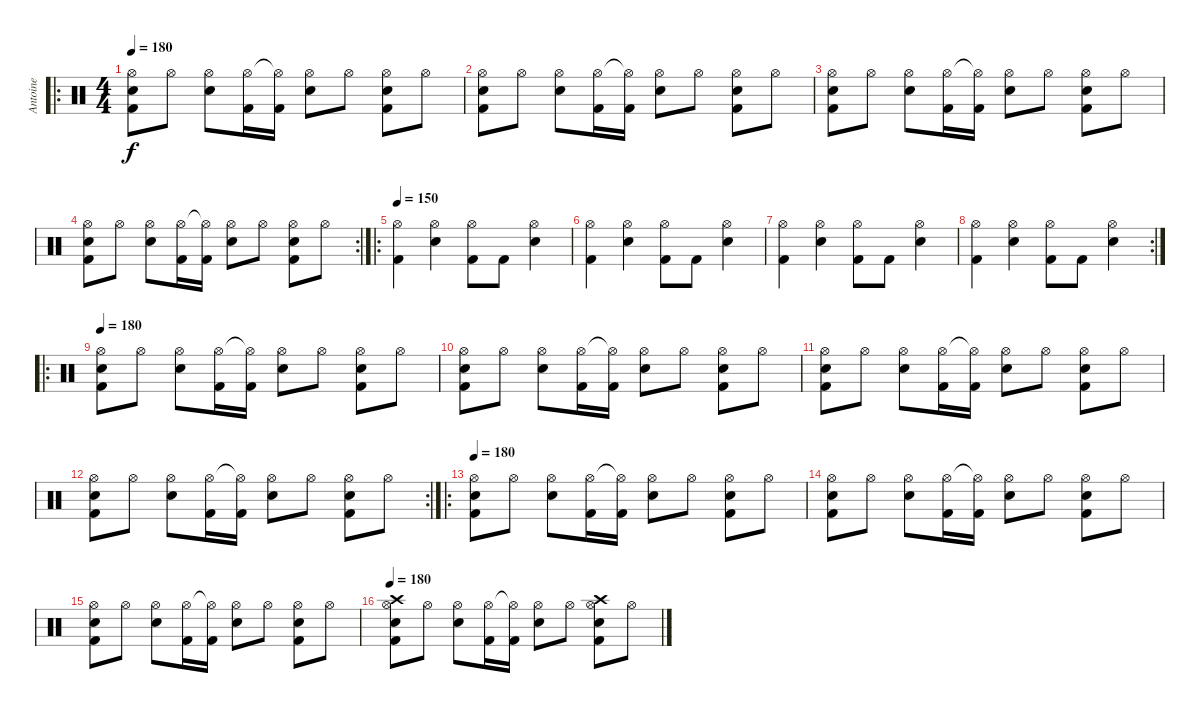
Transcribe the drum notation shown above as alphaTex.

\track ("Antoine" "Antoine") {instrument percussion}
\staff {score}
\articulation defaults
\ro
\ts (4 4)
\tempo 180
\clef neutral
\ks c
("Hi-Hat (open)" "Electric Snare (hit)" "Kick (hit) 2").8{dy f} "Hi-Hat (open)".8 ("Hi-Hat (open)" "Electric Snare (hit)").8 ("Hi-Hat (open)" "Kick (hit) 2").16 ("Hi-Hat (open)"{t} "Kick (hit) 2").16 ("Hi-Hat (open)" "Electric Snare (hit)").8 "Hi-Hat (open)".8 ("Hi-Hat (open)" "Electric Snare (hit)" "Kick (hit) 2").8 "Hi-Hat (open)".8 |
("Hi-Hat (open)" "Electric Snare (hit)" "Kick (hit) 2").8 "Hi-Hat (open)".8 ("Hi-Hat (open)" "Electric Snare (hit)").8 ("Hi-Hat (open)" "Kick (hit) 2").16 ("Hi-Hat (open)"{t} "Kick (hit) 2").16 ("Hi-Hat (open)" "Electric Snare (hit)").8 "Hi-Hat (open)".8 ("Hi-Hat (open)" "Electric Snare (hit)" "Kick (hit) 2").8 "Hi-Hat (open)".8 |
("Hi-Hat (open)" "Electric Snare (hit)" "Kick (hit) 2").8 "Hi-Hat (open)".8 ("Hi-Hat (open)" "Electric Snare (hit)").8 ("Hi-Hat (open)" "Kick (hit) 2").16 ("Hi-Hat (open)"{t} "Kick (hit) 2").16 ("Hi-Hat (open)" "Electric Snare (hit)").8 "Hi-Hat (open)".8 ("Hi-Hat (open)" "Electric Snare (hit)" "Kick (hit) 2").8 "Hi-Hat (open)".8 |
\rc 2
("Hi-Hat (open)" "Electric Snare (hit)" "Kick (hit) 2").8 "Hi-Hat (open)".8 ("Hi-Hat (open)" "Electric Snare (hit)").8 ("Hi-Hat (open)" "Kick (hit) 2").16 ("Hi-Hat (open)"{t} "Kick (hit) 2").16 ("Hi-Hat (open)" "Electric Snare (hit)").8 "Hi-Hat (open)".8 ("Hi-Hat (open)" "Electric Snare (hit)" "Kick (hit) 2").8 "Hi-Hat (open)".8 |
\ro
\tempo 150
("Hi-Hat (open)" "Kick (hit) 2").4 ("Hi-Hat (open)" "Electric Snare (hit)").4 ("Hi-Hat (open)" "Kick (hit) 2").8 "Kick (hit) 2".8 ("Hi-Hat (open)" "Electric Snare (hit)").4 |
("Hi-Hat (open)" "Kick (hit) 2").4 ("Hi-Hat (open)" "Electric Snare (hit)").4 ("Hi-Hat (open)" "Kick (hit) 2").8 "Kick (hit) 2".8 ("Hi-Hat (open)" "Electric Snare (hit)").4 |
("Hi-Hat (open)" "Kick (hit) 2").4 ("Hi-Hat (open)" "Electric Snare (hit)").4 ("Hi-Hat (open)" "Kick (hit) 2").8 "Kick (hit) 2".8 ("Hi-Hat (open)" "Electric Snare (hit)").4 |
\rc 2
("Hi-Hat (open)" "Kick (hit) 2").4 ("Hi-Hat (open)" "Electric Snare (hit)").4 ("Hi-Hat (open)" "Kick (hit) 2").8 "Kick (hit) 2".8 ("Hi-Hat (open)" "Electric Snare (hit)").4 |
\ro
\tempo 180
("Hi-Hat (open)" "Electric Snare (hit)" "Kick (hit) 2").8 "Hi-Hat (open)".8 ("Hi-Hat (open)" "Electric Snare (hit)").8 ("Hi-Hat (open)" "Kick (hit) 2").16 ("Hi-Hat (open)"{t} "Kick (hit) 2").16 ("Hi-Hat (open)" "Electric Snare (hit)").8 "Hi-Hat (open)".8 ("Hi-Hat (open)" "Electric Snare (hit)" "Kick (hit) 2").8 "Hi-Hat (open)".8 |
("Hi-Hat (open)" "Electric Snare (hit)" "Kick (hit) 2").8 "Hi-Hat (open)".8 ("Hi-Hat (open)" "Electric Snare (hit)").8 ("Hi-Hat (open)" "Kick (hit) 2").16 ("Hi-Hat (open)"{t} "Kick (hit) 2").16 ("Hi-Hat (open)" "Electric Snare (hit)").8 "Hi-Hat (open)".8 ("Hi-Hat (open)" "Electric Snare (hit)" "Kick (hit) 2").8 "Hi-Hat (open)".8 |
("Hi-Hat (open)" "Electric Snare (hit)" "Kick (hit) 2").8 "Hi-Hat (open)".8 ("Hi-Hat (open)" "Electric Snare (hit)").8 ("Hi-Hat (open)" "Kick (hit) 2").16 ("Hi-Hat (open)"{t} "Kick (hit) 2").16 ("Hi-Hat (open)" "Electric Snare (hit)").8 "Hi-Hat (open)".8 ("Hi-Hat (open)" "Electric Snare (hit)" "Kick (hit) 2").8 "Hi-Hat (open)".8 |
\rc 2
("Hi-Hat (open)" "Electric Snare (hit)" "Kick (hit) 2").8 "Hi-Hat (open)".8 ("Hi-Hat (open)" "Electric Snare (hit)").8 ("Hi-Hat (open)" "Kick (hit) 2").16 ("Hi-Hat (open)"{t} "Kick (hit) 2").16 ("Hi-Hat (open)" "Electric Snare (hit)").8 "Hi-Hat (open)".8 ("Hi-Hat (open)" "Electric Snare (hit)" "Kick (hit) 2").8 "Hi-Hat (open)".8 |
\ro
\tempo 180
("Hi-Hat (open)" "Electric Snare (hit)" "Kick (hit) 2").8 "Hi-Hat (open)".8 ("Hi-Hat (open)" "Electric Snare (hit)").8 ("Hi-Hat (open)" "Kick (hit) 2").16 ("Hi-Hat (open)"{t} "Kick (hit) 2").16 ("Hi-Hat (open)" "Electric Snare (hit)").8 "Hi-Hat (open)".8 ("Hi-Hat (open)" "Electric Snare (hit)" "Kick (hit) 2").8 "Hi-Hat (open)".8 |
("Hi-Hat (open)" "Electric Snare (hit)" "Kick (hit) 2").8 "Hi-Hat (open)".8 ("Hi-Hat (open)" "Electric Snare (hit)").8 ("Hi-Hat (open)" "Kick (hit) 2").16 ("Hi-Hat (open)"{t} "Kick (hit) 2").16 ("Hi-Hat (open)" "Electric Snare (hit)").8 "Hi-Hat (open)".8 ("Hi-Hat (open)" "Electric Snare (hit)" "Kick (hit) 2").8 "Hi-Hat (open)".8 |
("Hi-Hat (open)" "Electric Snare (hit)" "Kick (hit) 2").8 "Hi-Hat (open)".8 ("Hi-Hat (open)" "Electric Snare (hit)").8 ("Hi-Hat (open)" "Kick (hit) 2").16 ("Hi-Hat (open)"{t} "Kick (hit) 2").16 ("Hi-Hat (open)" "Electric Snare (hit)").8 "Hi-Hat (open)".8 ("Hi-Hat (open)" "Electric Snare (hit)" "Kick (hit) 2").8 "Hi-Hat (open)".8 |
\tempo 180
("Crash high (hit)" "Hi-Hat (open)" "Electric Snare (hit)" "Kick (hit) 2").8 "Hi-Hat (open)".8 ("Hi-Hat (open)" "Electric Snare (hit)").8 ("Hi-Hat (open)" "Kick (hit) 2").16 ("Hi-Hat (open)"{t} "Kick (hit) 2").16 ("Hi-Hat (open)" "Electric Snare (hit)").8 "Hi-Hat (open)".8 ("Crash high (hit)" "Hi-Hat (open)" "Electric Snare (hit)" "Kick (hit) 2").8 "Hi-Hat (open)".8
